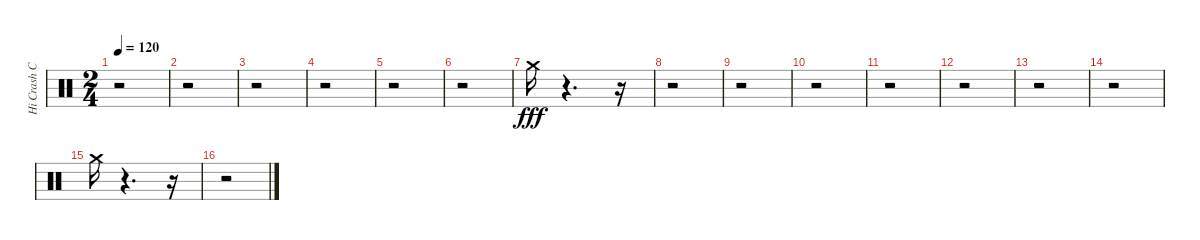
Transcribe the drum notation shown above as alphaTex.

\track ("Hi Crash Cymbal (1) (1) (1) (1)" "Hi Crash C") {instrument percussion}
\staff {score}
\articulation defaults
\ts (2 4)
\tempo 120
\clef neutral
\ks c
r.2{dy fff} |
r.2 |
r.2 |
r.2 |
r.2 |
r.2 |
"Crash medium (hit)".16 r.4{d} r.16 |
r.2 |
r.2 |
r.2 |
r.2 |
r.2 |
r.2 |
r.2 |
"Crash medium (hit)".16 r.4{d} r.16 |
r.2
